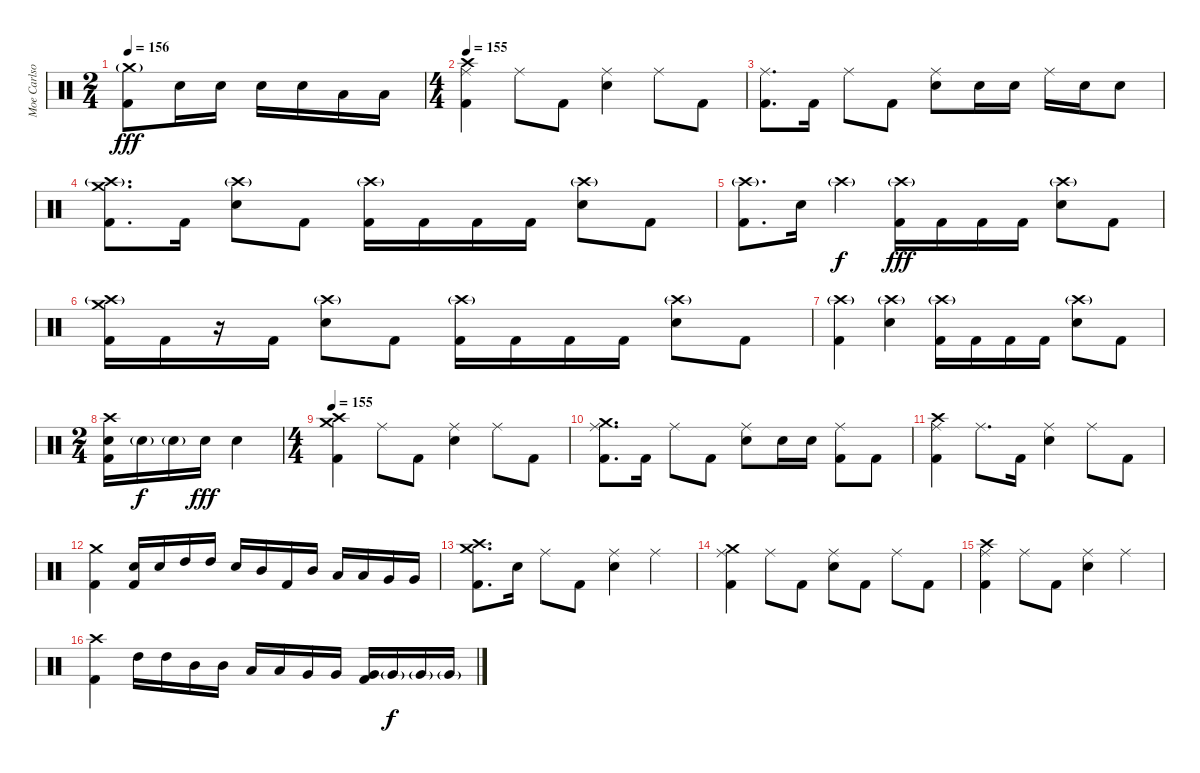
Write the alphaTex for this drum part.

\track ("Moe Carlson - Percussion" "Moe Carlso") {instrument percussion}
\staff {score}
\articulation defaults
\ts (2 4)
\tempo 156
\clef neutral
\ks c
("Crash medium (hit)"{g} "Kick (hit) 2").8{dy fff} "Electric Snare (hit)".16 "Electric Snare (hit)".16 "Electric Snare (hit)".16 "Electric Snare (hit)".16 "Low Tom (hit)".16 "Low Tom (hit)".16 |
\ts (4 4)
\tempo 155
("Crash high (hit)" "Ride (middle)" "Kick (hit) 2").4 "Ride (middle)".8 "Kick (hit) 2".8 ("Ride (middle)" "Electric Snare (hit)").4 "Ride (middle)".8 "Kick (hit) 2".8 |
("Ride (middle)" "Kick (hit) 2").8{d} "Kick (hit) 2".16 "Ride (middle)".8 "Kick (hit) 2".8 ("Ride (middle)" "Electric Snare (hit)").8 "Electric Snare (hit)".16 "Electric Snare (hit)".16 "Ride (middle)".16 "Electric Snare (hit)".16 "Electric Snare (hit)".8 |
("Crash high (hit)"{g} "Crash medium (hit)" "Kick (hit) 2").8{d} "Kick (hit) 2".16 ("Crash high (hit)"{g} "Electric Snare (hit)").8 "Kick (hit) 2".8 ("Crash high (hit)"{g} "Kick (hit) 2").16 "Kick (hit) 2".16 "Kick (hit) 2".16 "Kick (hit) 2".16 ("Crash high (hit)"{g} "Electric Snare (hit)").8 "Kick (hit) 2".8 |
("Crash high (hit)"{g} "Kick (hit) 2").8{d} "Electric Snare (hit)".16 "Crash high (hit)"{g}.4{dy f} ("Crash high (hit)"{g} "Kick (hit) 2").16{dy fff} "Kick (hit) 2".16 "Kick (hit) 2".16 "Kick (hit) 2".16 ("Crash high (hit)"{g} "Electric Snare (hit)").8 "Kick (hit) 2".8 |
("Crash high (hit)"{g} "Crash medium (hit)" "Kick (hit) 2").16 "Kick (hit) 2".16 r.16 "Kick (hit) 2".16 ("Crash high (hit)"{g} "Electric Snare (hit)").8 "Kick (hit) 2".8 ("Crash high (hit)"{g} "Kick (hit) 2").16 "Kick (hit) 2".16 "Kick (hit) 2".16 "Kick (hit) 2".16 ("Crash high (hit)"{g} "Electric Snare (hit)").8 "Kick (hit) 2".8 |
("Crash high (hit)"{g} "Kick (hit) 2").4 ("Crash high (hit)"{g} "Electric Snare (hit)").4 ("Crash high (hit)"{g} "Kick (hit) 2").16 "Kick (hit) 2".16 "Kick (hit) 2".16 "Kick (hit) 2".16 ("Crash high (hit)"{g} "Electric Snare (hit)").8 "Kick (hit) 2".8 |
\ts (2 4)
("Crash high (hit)" "Electric Snare (hit)" "Kick (hit) 2").16 "Electric Snare (hit)"{g}.16{dy f} "Electric Snare (hit)"{g}.16 "Electric Snare (hit)".16{dy fff} "Electric Snare (hit)".4 |
\ts (4 4)
\tempo 155
("Crash high (hit)" "Crash medium (hit)" "Kick (hit) 2").4 "Ride (middle)".8 "Kick (hit) 2".8 ("Ride (middle)" "Electric Snare (hit)").4 "Ride (middle)".8 "Kick (hit) 2".8 |
("Crash medium (hit)" "Ride (middle)" "Kick (hit) 2").8{d} "Kick (hit) 2".16 "Ride (middle)".8 "Kick (hit) 2".8 ("Ride (middle)" "Electric Snare (hit)").8 "Electric Snare (hit)".16 "Electric Snare (hit)".16 ("Ride (middle)" "Kick (hit) 2").8 "Kick (hit) 2".8 |
("Crash high (hit)" "Ride (middle)" "Kick (hit) 2").4 "Ride (middle)".8{d} "Kick (hit) 2".16 ("Ride (middle)" "Electric Snare (hit)").4 "Ride (middle)".8 "Kick (hit) 2".8 |
("Crash medium (hit)" "Kick (hit) 2").4 ("Electric Snare (hit)" "Kick (hit) 2").16 "Electric Snare (hit)".16 "High Tom (hit)".16 "High Tom (hit)".16 "Electric Snare (hit)".16 "Mid Tom (hit)".16 "Kick (hit) 2".16 "Mid Tom (hit)".16 "Low Tom (hit)".16 "Low Tom (hit)".16 "Very Low Tom (hit)".16 "Very Low Tom (hit)".16 |
("Crash high (hit)" "Crash medium (hit)" "Kick (hit) 2").8{d} "Electric Snare (hit)".16 "Ride (middle)".8 "Kick (hit) 2".8 ("Ride (middle)" "Electric Snare (hit)").4 "Ride (middle)".4 |
("Crash medium (hit)" "Ride (middle)" "Kick (hit) 2").4 "Ride (middle)".8 "Kick (hit) 2".8 ("Ride (middle)" "Electric Snare (hit)").8 "Kick (hit) 2".8 "Ride (middle)".8 "Kick (hit) 2".8 |
("Crash high (hit)" "Ride (middle)" "Kick (hit) 2").4 "Ride (middle)".8 "Kick (hit) 2".8 ("Ride (middle)" "Electric Snare (hit)").4 "Ride (middle)".4 |
("Crash high (hit)" "Kick (hit) 2").4 "High Tom (hit)".16 "High Tom (hit)".16 "Mid Tom (hit)".16 "Mid Tom (hit)".16 "Low Tom (hit)".16 "Low Tom (hit)".16 "Very Low Tom (hit)".16 "Very Low Tom (hit)".16 ("Very Low Tom (hit)" "Kick (hit) 2").16 "Very Low Tom (hit)"{g}.16{dy f} "Very Low Tom (hit)"{g}.16 "Very Low Tom (hit)"{g}.16
